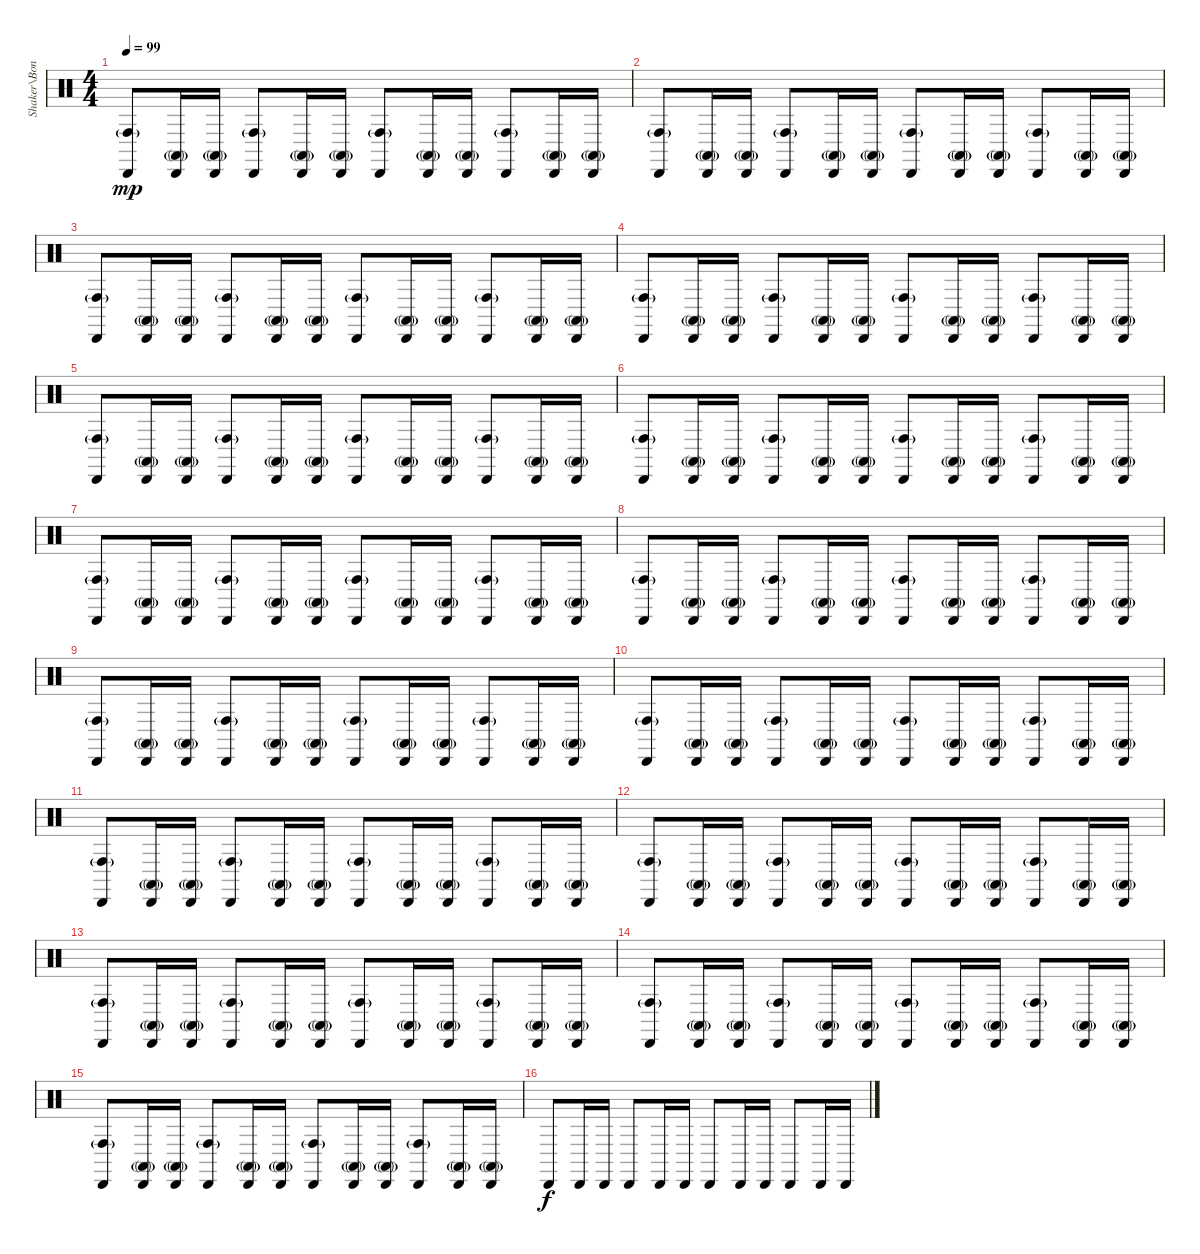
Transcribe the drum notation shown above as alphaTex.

\track ("Shaker\\Bongos" "Shaker\\Bon") {instrument percussion}
\staff {score}
\articulation defaults
\ts (4 4)
\tempo 99
\clef neutral
\ks c
("Cabasa (hit)" "Conga high (hit)"{g}).8{dy mp} ("Cabasa (hit)" "Conga high (mute)"{g}).16 ("Cabasa (hit)" "Conga high (mute)"{g}).16 ("Cabasa (hit)" "Conga high (hit)"{g}).8 ("Cabasa (hit)" "Conga high (mute)"{g}).16 ("Cabasa (hit)" "Conga high (mute)"{g}).16 ("Cabasa (hit)" "Conga high (hit)"{g}).8 ("Cabasa (hit)" "Conga high (mute)"{g}).16 ("Cabasa (hit)" "Conga high (mute)"{g}).16 ("Cabasa (hit)" "Conga high (hit)"{g}).8 ("Cabasa (hit)" "Conga high (mute)"{g}).16 ("Cabasa (hit)" "Conga high (mute)"{g}).16 |
("Cabasa (hit)" "Conga high (hit)"{g}).8 ("Cabasa (hit)" "Conga high (mute)"{g}).16 ("Cabasa (hit)" "Conga high (mute)"{g}).16 ("Cabasa (hit)" "Conga high (hit)"{g}).8 ("Cabasa (hit)" "Conga high (mute)"{g}).16 ("Cabasa (hit)" "Conga high (mute)"{g}).16 ("Cabasa (hit)" "Conga high (hit)"{g}).8 ("Cabasa (hit)" "Conga high (mute)"{g}).16 ("Cabasa (hit)" "Conga high (mute)"{g}).16 ("Cabasa (hit)" "Conga high (hit)"{g}).8 ("Cabasa (hit)" "Conga high (mute)"{g}).16 ("Cabasa (hit)" "Conga high (mute)"{g}).16 |
("Cabasa (hit)" "Conga high (hit)"{g}).8 ("Cabasa (hit)" "Conga high (mute)"{g}).16 ("Cabasa (hit)" "Conga high (mute)"{g}).16 ("Cabasa (hit)" "Conga high (hit)"{g}).8 ("Cabasa (hit)" "Conga high (mute)"{g}).16 ("Cabasa (hit)" "Conga high (mute)"{g}).16 ("Cabasa (hit)" "Conga high (hit)"{g}).8 ("Cabasa (hit)" "Conga high (mute)"{g}).16 ("Cabasa (hit)" "Conga high (mute)"{g}).16 ("Cabasa (hit)" "Conga high (hit)"{g}).8 ("Cabasa (hit)" "Conga high (mute)"{g}).16 ("Cabasa (hit)" "Conga high (mute)"{g}).16 |
("Cabasa (hit)" "Conga high (hit)"{g}).8 ("Cabasa (hit)" "Conga high (mute)"{g}).16 ("Cabasa (hit)" "Conga high (mute)"{g}).16 ("Cabasa (hit)" "Conga high (hit)"{g}).8 ("Cabasa (hit)" "Conga high (mute)"{g}).16 ("Cabasa (hit)" "Conga high (mute)"{g}).16 ("Cabasa (hit)" "Conga high (hit)"{g}).8 ("Cabasa (hit)" "Conga high (mute)"{g}).16 ("Cabasa (hit)" "Conga high (mute)"{g}).16 ("Cabasa (hit)" "Conga high (hit)"{g}).8 ("Cabasa (hit)" "Conga high (mute)"{g}).16 ("Cabasa (hit)" "Conga high (mute)"{g}).16 |
("Cabasa (hit)" "Conga high (hit)"{g}).8 ("Cabasa (hit)" "Conga high (mute)"{g}).16 ("Cabasa (hit)" "Conga high (mute)"{g}).16 ("Cabasa (hit)" "Conga high (hit)"{g}).8 ("Cabasa (hit)" "Conga high (mute)"{g}).16 ("Cabasa (hit)" "Conga high (mute)"{g}).16 ("Cabasa (hit)" "Conga high (hit)"{g}).8 ("Cabasa (hit)" "Conga high (mute)"{g}).16 ("Cabasa (hit)" "Conga high (mute)"{g}).16 ("Cabasa (hit)" "Conga high (hit)"{g}).8 ("Cabasa (hit)" "Conga high (mute)"{g}).16 ("Cabasa (hit)" "Conga high (mute)"{g}).16 |
("Cabasa (hit)" "Conga high (hit)"{g}).8 ("Cabasa (hit)" "Conga high (mute)"{g}).16 ("Cabasa (hit)" "Conga high (mute)"{g}).16 ("Cabasa (hit)" "Conga high (hit)"{g}).8 ("Cabasa (hit)" "Conga high (mute)"{g}).16 ("Cabasa (hit)" "Conga high (mute)"{g}).16 ("Cabasa (hit)" "Conga high (hit)"{g}).8 ("Cabasa (hit)" "Conga high (mute)"{g}).16 ("Cabasa (hit)" "Conga high (mute)"{g}).16 ("Cabasa (hit)" "Conga high (hit)"{g}).8 ("Cabasa (hit)" "Conga high (mute)"{g}).16 ("Cabasa (hit)" "Conga high (mute)"{g}).16 |
("Cabasa (hit)" "Conga high (hit)"{g}).8 ("Cabasa (hit)" "Conga high (mute)"{g}).16 ("Cabasa (hit)" "Conga high (mute)"{g}).16 ("Cabasa (hit)" "Conga high (hit)"{g}).8 ("Cabasa (hit)" "Conga high (mute)"{g}).16 ("Cabasa (hit)" "Conga high (mute)"{g}).16 ("Cabasa (hit)" "Conga high (hit)"{g}).8 ("Cabasa (hit)" "Conga high (mute)"{g}).16 ("Cabasa (hit)" "Conga high (mute)"{g}).16 ("Cabasa (hit)" "Conga high (hit)"{g}).8 ("Cabasa (hit)" "Conga high (mute)"{g}).16 ("Cabasa (hit)" "Conga high (mute)"{g}).16 |
("Cabasa (hit)" "Conga high (hit)"{g}).8 ("Cabasa (hit)" "Conga high (mute)"{g}).16 ("Cabasa (hit)" "Conga high (mute)"{g}).16 ("Cabasa (hit)" "Conga high (hit)"{g}).8 ("Cabasa (hit)" "Conga high (mute)"{g}).16 ("Cabasa (hit)" "Conga high (mute)"{g}).16 ("Cabasa (hit)" "Conga high (hit)"{g}).8 ("Cabasa (hit)" "Conga high (mute)"{g}).16 ("Cabasa (hit)" "Conga high (mute)"{g}).16 ("Cabasa (hit)" "Conga high (hit)"{g}).8 ("Cabasa (hit)" "Conga high (mute)"{g}).16 ("Cabasa (hit)" "Conga high (mute)"{g}).16 |
("Cabasa (hit)" "Conga high (hit)"{g}).8 ("Cabasa (hit)" "Conga high (mute)"{g}).16 ("Cabasa (hit)" "Conga high (mute)"{g}).16 ("Cabasa (hit)" "Conga high (hit)"{g}).8 ("Cabasa (hit)" "Conga high (mute)"{g}).16 ("Cabasa (hit)" "Conga high (mute)"{g}).16 ("Cabasa (hit)" "Conga high (hit)"{g}).8 ("Cabasa (hit)" "Conga high (mute)"{g}).16 ("Cabasa (hit)" "Conga high (mute)"{g}).16 ("Cabasa (hit)" "Conga high (hit)"{g}).8 ("Cabasa (hit)" "Conga high (mute)"{g}).16 ("Cabasa (hit)" "Conga high (mute)"{g}).16 |
("Cabasa (hit)" "Conga high (hit)"{g}).8 ("Cabasa (hit)" "Conga high (mute)"{g}).16 ("Cabasa (hit)" "Conga high (mute)"{g}).16 ("Cabasa (hit)" "Conga high (hit)"{g}).8 ("Cabasa (hit)" "Conga high (mute)"{g}).16 ("Cabasa (hit)" "Conga high (mute)"{g}).16 ("Cabasa (hit)" "Conga high (hit)"{g}).8 ("Cabasa (hit)" "Conga high (mute)"{g}).16 ("Cabasa (hit)" "Conga high (mute)"{g}).16 ("Cabasa (hit)" "Conga high (hit)"{g}).8 ("Cabasa (hit)" "Conga high (mute)"{g}).16 ("Cabasa (hit)" "Conga high (mute)"{g}).16 |
("Cabasa (hit)" "Conga high (hit)"{g}).8 ("Cabasa (hit)" "Conga high (mute)"{g}).16 ("Cabasa (hit)" "Conga high (mute)"{g}).16 ("Cabasa (hit)" "Conga high (hit)"{g}).8 ("Cabasa (hit)" "Conga high (mute)"{g}).16 ("Cabasa (hit)" "Conga high (mute)"{g}).16 ("Cabasa (hit)" "Conga high (hit)"{g}).8 ("Cabasa (hit)" "Conga high (mute)"{g}).16 ("Cabasa (hit)" "Conga high (mute)"{g}).16 ("Cabasa (hit)" "Conga high (hit)"{g}).8 ("Cabasa (hit)" "Conga high (mute)"{g}).16 ("Cabasa (hit)" "Conga high (mute)"{g}).16 |
("Cabasa (hit)" "Conga high (hit)"{g}).8 ("Cabasa (hit)" "Conga high (mute)"{g}).16 ("Cabasa (hit)" "Conga high (mute)"{g}).16 ("Cabasa (hit)" "Conga high (hit)"{g}).8 ("Cabasa (hit)" "Conga high (mute)"{g}).16 ("Cabasa (hit)" "Conga high (mute)"{g}).16 ("Cabasa (hit)" "Conga high (hit)"{g}).8 ("Cabasa (hit)" "Conga high (mute)"{g}).16 ("Cabasa (hit)" "Conga high (mute)"{g}).16 ("Cabasa (hit)" "Conga high (hit)"{g}).8 ("Cabasa (hit)" "Conga high (mute)"{g}).16 ("Cabasa (hit)" "Conga high (mute)"{g}).16 |
("Cabasa (hit)" "Conga high (hit)"{g}).8 ("Cabasa (hit)" "Conga high (mute)"{g}).16 ("Cabasa (hit)" "Conga high (mute)"{g}).16 ("Cabasa (hit)" "Conga high (hit)"{g}).8 ("Cabasa (hit)" "Conga high (mute)"{g}).16 ("Cabasa (hit)" "Conga high (mute)"{g}).16 ("Cabasa (hit)" "Conga high (hit)"{g}).8 ("Cabasa (hit)" "Conga high (mute)"{g}).16 ("Cabasa (hit)" "Conga high (mute)"{g}).16 ("Cabasa (hit)" "Conga high (hit)"{g}).8 ("Cabasa (hit)" "Conga high (mute)"{g}).16 ("Cabasa (hit)" "Conga high (mute)"{g}).16 |
("Cabasa (hit)" "Conga high (hit)"{g}).8 ("Cabasa (hit)" "Conga high (mute)"{g}).16 ("Cabasa (hit)" "Conga high (mute)"{g}).16 ("Cabasa (hit)" "Conga high (hit)"{g}).8 ("Cabasa (hit)" "Conga high (mute)"{g}).16 ("Cabasa (hit)" "Conga high (mute)"{g}).16 ("Cabasa (hit)" "Conga high (hit)"{g}).8 ("Cabasa (hit)" "Conga high (mute)"{g}).16 ("Cabasa (hit)" "Conga high (mute)"{g}).16 ("Cabasa (hit)" "Conga high (hit)"{g}).8 ("Cabasa (hit)" "Conga high (mute)"{g}).16 ("Cabasa (hit)" "Conga high (mute)"{g}).16 |
("Cabasa (hit)" "Conga high (hit)"{g}).8 ("Cabasa (hit)" "Conga high (mute)"{g}).16 ("Cabasa (hit)" "Conga high (mute)"{g}).16 ("Cabasa (hit)" "Conga high (hit)"{g}).8 ("Cabasa (hit)" "Conga high (mute)"{g}).16 ("Cabasa (hit)" "Conga high (mute)"{g}).16 ("Cabasa (hit)" "Conga high (hit)"{g}).8 ("Cabasa (hit)" "Conga high (mute)"{g}).16 ("Cabasa (hit)" "Conga high (mute)"{g}).16 ("Cabasa (hit)" "Conga high (hit)"{g}).8 ("Cabasa (hit)" "Conga high (mute)"{g}).16 ("Cabasa (hit)" "Conga high (mute)"{g}).16 |
"Cabasa (hit)".8{dy f} "Cabasa (hit)".16 "Cabasa (hit)".16 "Cabasa (hit)".8 "Cabasa (hit)".16 "Cabasa (hit)".16 "Cabasa (hit)".8 "Cabasa (hit)".16 "Cabasa (hit)".16 "Cabasa (hit)".8 "Cabasa (hit)".16 "Cabasa (hit)".16
